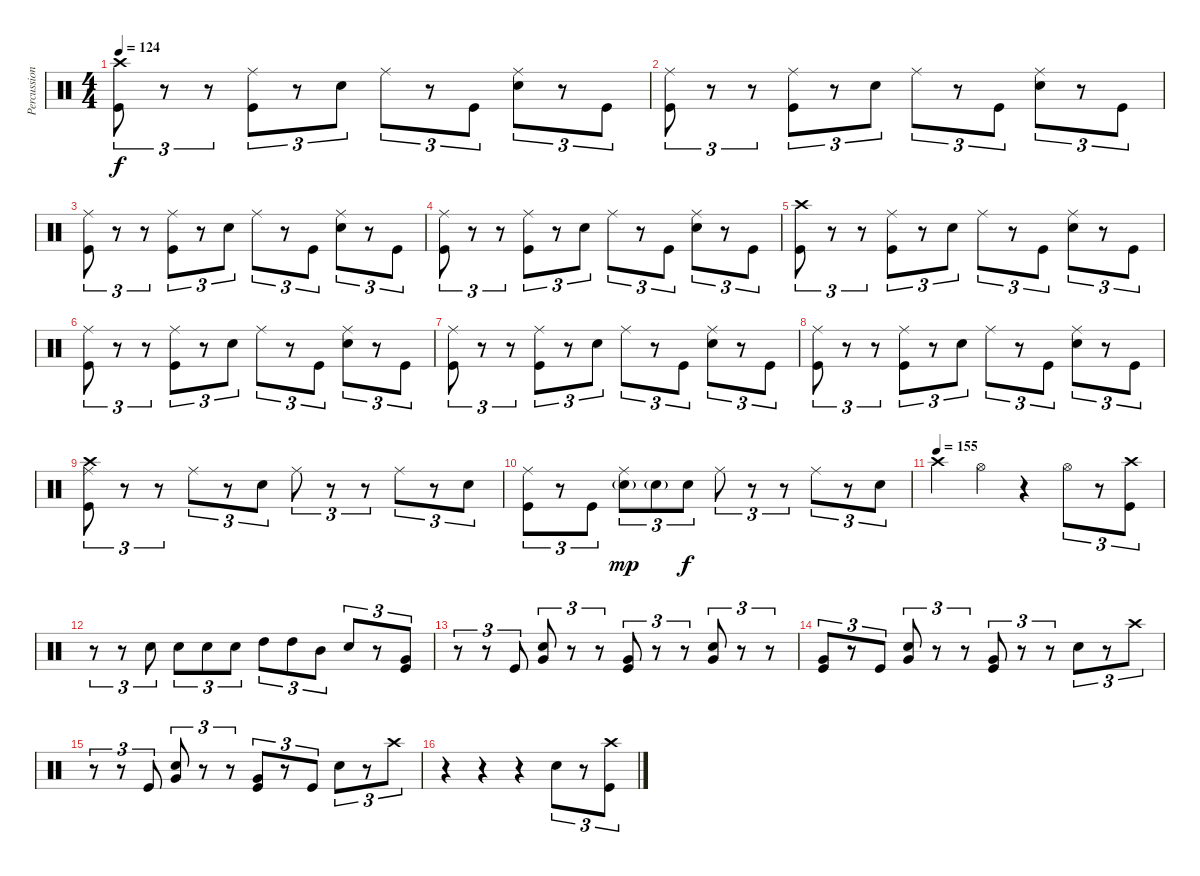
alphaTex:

\track ("Percussion" "Percussion") {instrument percussion}
\staff {score}
\articulation defaults
\ts (4 4)
\tempo 124
\clef neutral
\ks c
("Crash high (hit)" "Kick (hit)").8{tu (3 2) dy f} r.8{tu (3 2)} r.8{tu (3 2)} ("Ride (middle)" "Kick (hit)").8{tu (3 2)} r.8{tu (3 2)} "Snare (hit) 2".8{tu (3 2)} "Ride (middle)".8{tu (3 2)} r.8{tu (3 2)} "Kick (hit)".8{tu (3 2)} ("Ride (middle)" "Snare (hit) 2").8{tu (3 2)} r.8{tu (3 2)} "Kick (hit)".8{tu (3 2)} |
("Ride (middle)" "Kick (hit)").8{tu (3 2)} r.8{tu (3 2)} r.8{tu (3 2)} ("Ride (middle)" "Kick (hit)").8{tu (3 2)} r.8{tu (3 2)} "Snare (hit) 2".8{tu (3 2)} "Ride (middle)".8{tu (3 2)} r.8{tu (3 2)} "Kick (hit)".8{tu (3 2)} ("Ride (middle)" "Snare (hit) 2").8{tu (3 2)} r.8{tu (3 2)} "Kick (hit)".8{tu (3 2)} |
("Ride (middle)" "Kick (hit)").8{tu (3 2)} r.8{tu (3 2)} r.8{tu (3 2)} ("Ride (middle)" "Kick (hit)").8{tu (3 2)} r.8{tu (3 2)} "Snare (hit) 2".8{tu (3 2)} "Ride (middle)".8{tu (3 2)} r.8{tu (3 2)} "Kick (hit)".8{tu (3 2)} ("Ride (middle)" "Snare (hit) 2").8{tu (3 2)} r.8{tu (3 2)} "Kick (hit)".8{tu (3 2)} |
("Ride (middle)" "Kick (hit)").8{tu (3 2)} r.8{tu (3 2)} r.8{tu (3 2)} ("Ride (middle)" "Kick (hit)").8{tu (3 2)} r.8{tu (3 2)} "Snare (hit) 2".8{tu (3 2)} "Ride (middle)".8{tu (3 2)} r.8{tu (3 2)} "Kick (hit)".8{tu (3 2)} ("Ride (middle)" "Snare (hit) 2").8{tu (3 2)} r.8{tu (3 2)} "Kick (hit)".8{tu (3 2)} |
("Crash high (hit)" "Kick (hit)").8{tu (3 2)} r.8{tu (3 2)} r.8{tu (3 2)} ("Ride (middle)" "Kick (hit)").8{tu (3 2)} r.8{tu (3 2)} "Snare (hit) 2".8{tu (3 2)} "Ride (middle)".8{tu (3 2)} r.8{tu (3 2)} "Kick (hit)".8{tu (3 2)} ("Ride (middle)" "Snare (hit) 2").8{tu (3 2)} r.8{tu (3 2)} "Kick (hit)".8{tu (3 2)} |
("Ride (middle)" "Kick (hit)").8{tu (3 2)} r.8{tu (3 2)} r.8{tu (3 2)} ("Ride (middle)" "Kick (hit)").8{tu (3 2)} r.8{tu (3 2)} "Snare (hit) 2".8{tu (3 2)} "Ride (middle)".8{tu (3 2)} r.8{tu (3 2)} "Kick (hit)".8{tu (3 2)} ("Ride (middle)" "Snare (hit) 2").8{tu (3 2)} r.8{tu (3 2)} "Kick (hit)".8{tu (3 2)} |
("Ride (middle)" "Kick (hit)").8{tu (3 2)} r.8{tu (3 2)} r.8{tu (3 2)} ("Ride (middle)" "Kick (hit)").8{tu (3 2)} r.8{tu (3 2)} "Snare (hit) 2".8{tu (3 2)} "Ride (middle)".8{tu (3 2)} r.8{tu (3 2)} "Kick (hit)".8{tu (3 2)} ("Ride (middle)" "Snare (hit) 2").8{tu (3 2)} r.8{tu (3 2)} "Kick (hit)".8{tu (3 2)} |
("Ride (middle)" "Kick (hit)").8{tu (3 2)} r.8{tu (3 2)} r.8{tu (3 2)} ("Ride (middle)" "Kick (hit)").8{tu (3 2)} r.8{tu (3 2)} "Snare (hit) 2".8{tu (3 2)} "Ride (middle)".8{tu (3 2)} r.8{tu (3 2)} "Kick (hit)".8{tu (3 2)} ("Ride (middle)" "Snare (hit) 2").8{tu (3 2)} r.8{tu (3 2)} "Kick (hit)".8{tu (3 2)} |
("Crash high (hit)" "Ride (middle)" "Kick (hit)").8{tu (3 2)} r.8{tu (3 2)} r.8{tu (3 2)} "Ride (middle)".8{tu (3 2)} r.8{tu (3 2)} "Snare (hit) 2".8{tu (3 2)} "Ride (middle)".8{tu (3 2)} r.8{tu (3 2)} r.8{tu (3 2)} "Ride (middle)".8{tu (3 2)} r.8{tu (3 2)} "Snare (hit) 2".8{tu (3 2)} |
("Ride (middle)" "Kick (hit)").8{tu (3 2)} r.8{tu (3 2)} "Kick (hit)".8{tu (3 2)} ("Ride (middle)" "Snare (hit) 2"{g}).8{tu (3 2) dy mp} "Snare (hit) 2"{g}.8{tu (3 2)} "Snare (hit) 2".8{tu (3 2) dy f} "Ride (middle)".8{tu (3 2)} r.8{tu (3 2)} r.8{tu (3 2)} "Ride (middle)".8{tu (3 2)} r.8{tu (3 2)} "Snare (hit) 2".8{tu (3 2)} |
\tempo (155)
"Crash high (hit)".4 "Hi-Hat (open)".4 r.4 "Hi-Hat (open)".8{tu (3 2)} r.8{tu (3 2)} ("Crash high (hit)" "Kick (hit)").8{tu (3 2)} |
r.8{tu (3 2)} r.8{tu (3 2)} "Snare (hit) 2".8{tu (3 2)} "Snare (hit) 2".8{tu (3 2)} "Snare (hit) 2".8{tu (3 2)} "Snare (hit) 2".8{tu (3 2)} "High Tom (hit)".8{tu (3 2)} "High Tom (hit)".8{tu (3 2)} "Mid Tom (hit)".8{tu (3 2)} "Snare (hit) 2".8{tu (3 2)} r.8{tu (3 2)} ("Very Low Tom (hit)" "Kick (hit)").8{tu (3 2)} |
r.8{tu (3 2)} r.8{tu (3 2)} "Kick (hit)".8{tu (3 2)} ("Very Low Tom (hit)" "Snare (hit) 2").8{tu (3 2)} r.8{tu (3 2)} r.8{tu (3 2)} ("Very Low Tom (hit)" "Kick (hit)").8{tu (3 2)} r.8{tu (3 2)} r.8{tu (3 2)} ("Very Low Tom (hit)" "Snare (hit) 2").8{tu (3 2)} r.8{tu (3 2)} r.8{tu (3 2)} |
("Very Low Tom (hit)" "Kick (hit)").8{tu (3 2)} r.8{tu (3 2)} "Kick (hit)".8{tu (3 2)} ("Very Low Tom (hit)" "Snare (hit) 2").8{tu (3 2)} r.8{tu (3 2)} r.8{tu (3 2)} ("Very Low Tom (hit)" "Kick (hit)").8{tu (3 2)} r.8{tu (3 2)} r.8{tu (3 2)} "Snare (hit) 2".8{tu (3 2)} r.8{tu (3 2)} "Crash high (hit)".8{tu (3 2)} |
r.8{tu (3 2)} r.8{tu (3 2)} "Kick (hit)".8{tu (3 2)} ("Very Low Tom (hit)" "Snare (hit) 2").8{tu (3 2)} r.8{tu (3 2)} r.8{tu (3 2)} ("Very Low Tom (hit)" "Kick (hit)").8{tu (3 2)} r.8{tu (3 2)} "Kick (hit)".8{tu (3 2)} "Snare (hit) 2".8{tu (3 2)} r.8{tu (3 2)} "Crash high (hit)".8{tu (3 2)} |
r.4 r.4 r.4 "Snare (hit) 2".8{tu (3 2)} r.8{tu (3 2)} ("Crash high (hit)" "Kick (hit)").8{tu (3 2)}
